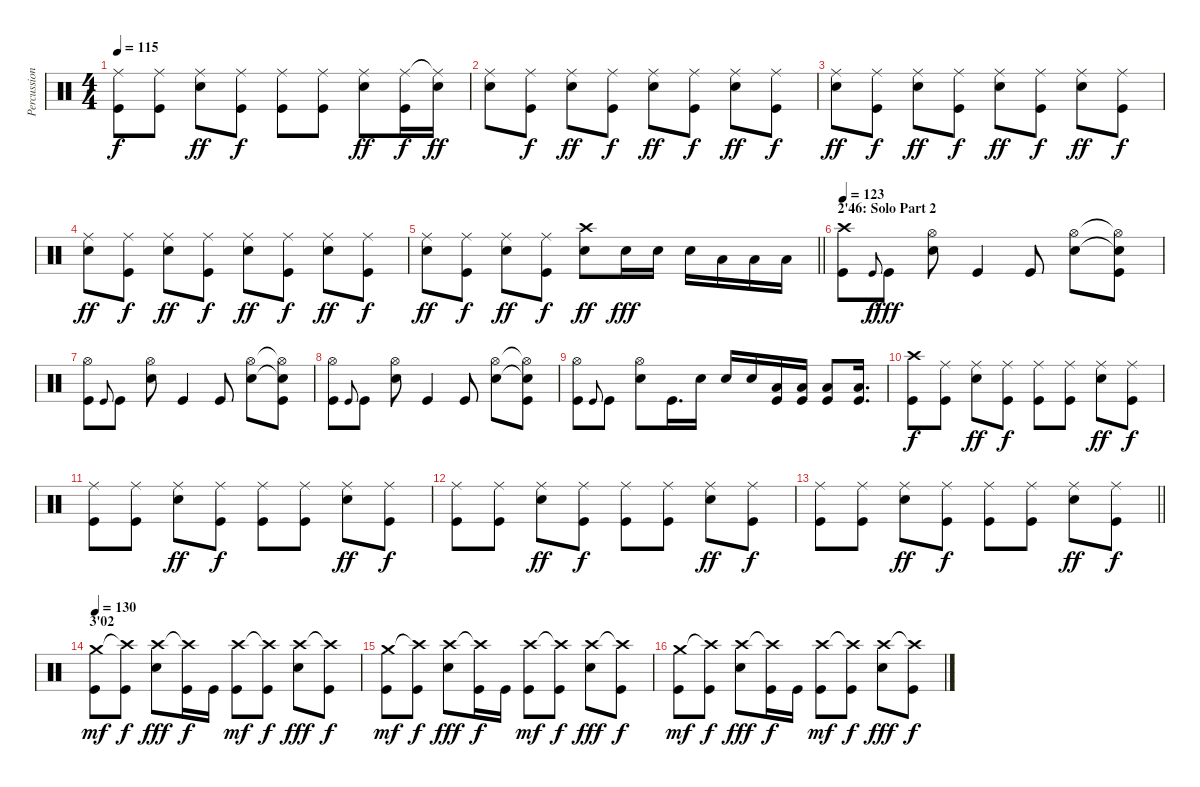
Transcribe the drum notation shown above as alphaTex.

\track ("Percussion" "Percussion") {instrument percussion}
\staff {score}
\articulation defaults
\ts (4 4)
\tempo 115
\clef neutral
\ks c
("Ride (middle)" "Kick (hit)").8{dy f} ("Ride (middle)" "Kick (hit)").8 ("Ride (middle)" "Electric Snare (hit)").8{dy ff} ("Ride (middle)" "Kick (hit)").8{dy f} ("Ride (middle)" "Kick (hit)").8 ("Ride (middle)" "Kick (hit)").8 ("Ride (middle)" "Electric Snare (hit)").8{dy ff} ("Ride (middle)" "Kick (hit)").16{dy f} ("Ride (middle)"{t} "Electric Snare (hit)").16{dy ff} |
("Ride (middle)" "Electric Snare (hit)").8 ("Ride (middle)" "Kick (hit)").8{dy f} ("Ride (middle)" "Electric Snare (hit)").8{dy ff} ("Ride (middle)" "Kick (hit)").8{dy f} ("Ride (middle)" "Electric Snare (hit)").8{dy ff} ("Ride (middle)" "Kick (hit)").8{dy f} ("Ride (middle)" "Electric Snare (hit)").8{dy ff} ("Ride (middle)" "Kick (hit)").8{dy f} |
("Ride (middle)" "Electric Snare (hit)").8{dy ff} ("Ride (middle)" "Kick (hit)").8{dy f} ("Ride (middle)" "Electric Snare (hit)").8{dy ff} ("Ride (middle)" "Kick (hit)").8{dy f} ("Ride (middle)" "Electric Snare (hit)").8{dy ff} ("Ride (middle)" "Kick (hit)").8{dy f} ("Ride (middle)" "Electric Snare (hit)").8{dy ff} ("Ride (middle)" "Kick (hit)").8{dy f} |
("Ride (middle)" "Electric Snare (hit)").8{dy ff} ("Ride (middle)" "Kick (hit)").8{dy f} ("Ride (middle)" "Electric Snare (hit)").8{dy ff} ("Ride (middle)" "Kick (hit)").8{dy f} ("Ride (middle)" "Electric Snare (hit)").8{dy ff} ("Ride (middle)" "Kick (hit)").8{dy f} ("Ride (middle)" "Electric Snare (hit)").8{dy ff} ("Ride (middle)" "Kick (hit)").8{dy f} |
\barLineRight lightlight
("Ride (middle)" "Electric Snare (hit)").8{dy ff} ("Ride (middle)" "Kick (hit)").8{dy f} ("Ride (middle)" "Electric Snare (hit)").8{dy ff} ("Ride (middle)" "Kick (hit)").8{dy f} ("Crash high (hit)" "Electric Snare (hit)").8{dy ff} "Electric Snare (hit)".16{dy fff} "Electric Snare (hit)".16 "Electric Snare (hit)".16 "Low Floor Tom (hit)".16 "Low Floor Tom (hit)".16 "Low Floor Tom (hit)".16 |
\section ("" "2'46: Solo Part 2")
\tempo 123
("Crash high (hit)" "Kick (hit)").8 "Kick (hit)".8{gr onbeat dy f} "Kick (hit)".8{dy fff} ("Hi-Hat (open)" "Electric Snare (hit)").8 "Kick (hit)".4 "Kick (hit)".8 ("Hi-Hat (open)" "Electric Snare (hit)").8 ("Hi-Hat (open)"{t} "Electric Snare (hit)"{t} "Kick (hit)").8 |
("Hi-Hat (open)" "Kick (hit)").8 "Kick (hit)".8{gr onbeat} "Kick (hit)".8 ("Hi-Hat (open)" "Electric Snare (hit)").8 "Kick (hit)".4 "Kick (hit)".8 ("Hi-Hat (open)" "Electric Snare (hit)").8 ("Hi-Hat (open)"{t} "Electric Snare (hit)"{t} "Kick (hit)").8 |
("Hi-Hat (open)" "Kick (hit)").8 "Kick (hit)".8{gr onbeat} "Kick (hit)".8 ("Hi-Hat (open)" "Electric Snare (hit)").8 "Kick (hit)".4 "Kick (hit)".8 ("Hi-Hat (open)" "Electric Snare (hit)").8 ("Hi-Hat (open)"{t} "Electric Snare (hit)"{t} "Kick (hit)").8 |
("Hi-Hat (open)" "Kick (hit)").8 "Kick (hit)".8{gr onbeat} "Kick (hit)".8 ("Hi-Hat (open)" "Electric Snare (hit)").8 "Kick (hit)".16{d} "Electric Snare (hit)".16 "Electric Snare (hit)".16 "Electric Snare (hit)".16 ("Low Floor Tom (hit)" "Kick (hit)").16 ("Low Floor Tom (hit)" "Kick (hit)").16 ("Low Floor Tom (hit)" "Kick (hit)").8 ("Low Floor Tom (hit)" "Kick (hit)").16{d} |
("Crash high (hit)" "Kick (hit)").8{dy f} ("Ride (middle)" "Kick (hit)").8 ("Ride (middle)" "Electric Snare (hit)").8{dy ff} ("Ride (middle)" "Kick (hit)").8{dy f} ("Ride (middle)" "Kick (hit)").8 ("Ride (middle)" "Kick (hit)").8 ("Ride (middle)" "Electric Snare (hit)").8{dy ff} ("Ride (middle)" "Kick (hit)").8{dy f} |
("Ride (middle)" "Kick (hit)").8 ("Ride (middle)" "Kick (hit)").8 ("Ride (middle)" "Electric Snare (hit)").8{dy ff} ("Ride (middle)" "Kick (hit)").8{dy f} ("Ride (middle)" "Kick (hit)").8 ("Ride (middle)" "Kick (hit)").8 ("Ride (middle)" "Electric Snare (hit)").8{dy ff} ("Ride (middle)" "Kick (hit)").8{dy f} |
("Ride (middle)" "Kick (hit)").8 ("Ride (middle)" "Kick (hit)").8 ("Ride (middle)" "Electric Snare (hit)").8{dy ff} ("Ride (middle)" "Kick (hit)").8{dy f} ("Ride (middle)" "Kick (hit)").8 ("Ride (middle)" "Kick (hit)").8 ("Ride (middle)" "Electric Snare (hit)").8{dy ff} ("Ride (middle)" "Kick (hit)").8{dy f} |
\barLineRight lightlight
("Ride (middle)" "Kick (hit)").8 ("Ride (middle)" "Kick (hit)").8 ("Ride (middle)" "Electric Snare (hit)").8{dy ff} ("Ride (middle)" "Kick (hit)").8{dy f} ("Ride (middle)" "Kick (hit)").8 ("Ride (middle)" "Kick (hit)").8 ("Ride (middle)" "Electric Snare (hit)").8{dy ff} ("Ride (middle)" "Kick (hit)").8{dy f} |
\section ("" "3'02")
\tempo 130
("Crash medium (hit)" "Kick (hit)").8{dy mf} ("Crash high (hit)"{t} "Kick (hit)").8{dy f} ("Crash high (hit)" "Electric Snare (hit)").8{dy fff} ("Crash high (hit)"{t} "Kick (hit)").16{dy f} "Kick (hit)".16 ("Crash high (hit)" "Kick (hit)").8{dy mf} ("Crash high (hit)"{t} "Kick (hit)").8{dy f} ("Crash high (hit)" "Electric Snare (hit)").8{dy fff} ("Crash high (hit)"{t} "Kick (hit)").8{dy f} |
("Crash medium (hit)" "Kick (hit)").8{dy mf} ("Crash high (hit)"{t} "Kick (hit)").8{dy f} ("Crash high (hit)" "Electric Snare (hit)").8{dy fff} ("Crash high (hit)"{t} "Kick (hit)").16{dy f} "Kick (hit)".16 ("Crash high (hit)" "Kick (hit)").8{dy mf} ("Crash high (hit)"{t} "Kick (hit)").8{dy f} ("Crash high (hit)" "Electric Snare (hit)").8{dy fff} ("Crash high (hit)"{t} "Kick (hit)").8{dy f} |
("Crash medium (hit)" "Kick (hit)").8{dy mf} ("Crash high (hit)"{t} "Kick (hit)").8{dy f} ("Crash high (hit)" "Electric Snare (hit)").8{dy fff} ("Crash high (hit)"{t} "Kick (hit)").16{dy f} "Kick (hit)".16 ("Crash high (hit)" "Kick (hit)").8{dy mf} ("Crash high (hit)"{t} "Kick (hit)").8{dy f} ("Crash high (hit)" "Electric Snare (hit)").8{dy fff} ("Crash high (hit)"{t} "Kick (hit)").8{dy f}
